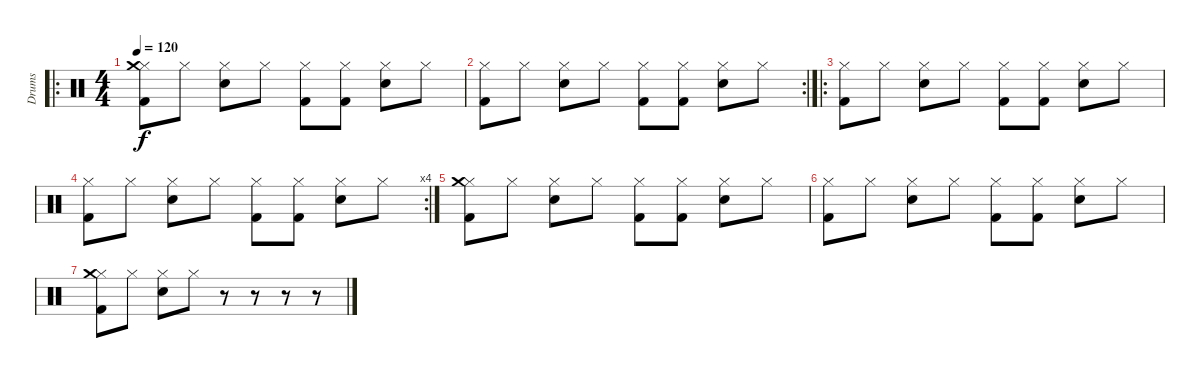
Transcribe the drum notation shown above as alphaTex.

\track ("Drums" "Drums") {instrument percussion}
\staff {score}
\articulation defaults
\ro
\ts (4 4)
\tempo 120
\clef neutral
\ks c
("Hi-Hat (closed)" "Kick (hit) 2" "Crash medium (hit)").8{dy f} "Hi-Hat (closed)".8 ("Hi-Hat (closed)" "Snare (hit) 2").8 "Hi-Hat (closed)".8 ("Hi-Hat (closed)" "Kick (hit) 2").8 ("Hi-Hat (closed)" "Kick (hit) 2").8 ("Hi-Hat (closed)" "Snare (hit) 2").8 "Hi-Hat (closed)".8 |
\rc 2
("Hi-Hat (closed)" "Kick (hit) 2").8 "Hi-Hat (closed)".8 ("Hi-Hat (closed)" "Snare (hit) 2").8 "Hi-Hat (closed)".8 ("Hi-Hat (closed)" "Kick (hit) 2").8 ("Hi-Hat (closed)" "Kick (hit) 2").8 ("Hi-Hat (closed)" "Snare (hit) 2").8 "Hi-Hat (closed)".8 |
\ro
("Hi-Hat (closed)" "Kick (hit) 2").8 "Hi-Hat (closed)".8 ("Hi-Hat (closed)" "Snare (hit) 2").8 "Hi-Hat (closed)".8 ("Hi-Hat (closed)" "Kick (hit) 2").8 ("Hi-Hat (closed)" "Kick (hit) 2").8 ("Hi-Hat (closed)" "Snare (hit) 2").8 "Hi-Hat (closed)".8 |
\rc 4
("Hi-Hat (closed)" "Kick (hit) 2").8 "Hi-Hat (closed)".8 ("Hi-Hat (closed)" "Snare (hit) 2").8 "Hi-Hat (closed)".8 ("Hi-Hat (closed)" "Kick (hit) 2").8 ("Hi-Hat (closed)" "Kick (hit) 2").8 ("Hi-Hat (closed)" "Snare (hit) 2").8 "Hi-Hat (closed)".8 |
("Hi-Hat (closed)" "Kick (hit) 2" "Crash medium (hit)").8 "Hi-Hat (closed)".8 ("Hi-Hat (closed)" "Snare (hit) 2").8 "Hi-Hat (closed)".8 ("Hi-Hat (closed)" "Kick (hit) 2").8 ("Hi-Hat (closed)" "Kick (hit) 2").8 ("Hi-Hat (closed)" "Snare (hit) 2").8 "Hi-Hat (closed)".8 |
("Hi-Hat (closed)" "Kick (hit) 2").8 "Hi-Hat (closed)".8 ("Hi-Hat (closed)" "Snare (hit) 2").8 "Hi-Hat (closed)".8 ("Hi-Hat (closed)" "Kick (hit) 2").8 ("Hi-Hat (closed)" "Kick (hit) 2").8 ("Hi-Hat (closed)" "Snare (hit) 2").8 "Hi-Hat (closed)".8 |
("Hi-Hat (closed)" "Kick (hit) 2" "Crash medium (hit)").8 "Hi-Hat (closed)".8 ("Hi-Hat (closed)" "Snare (hit) 2").8 "Hi-Hat (closed)".8 r.8 r.8 r.8 r.8
